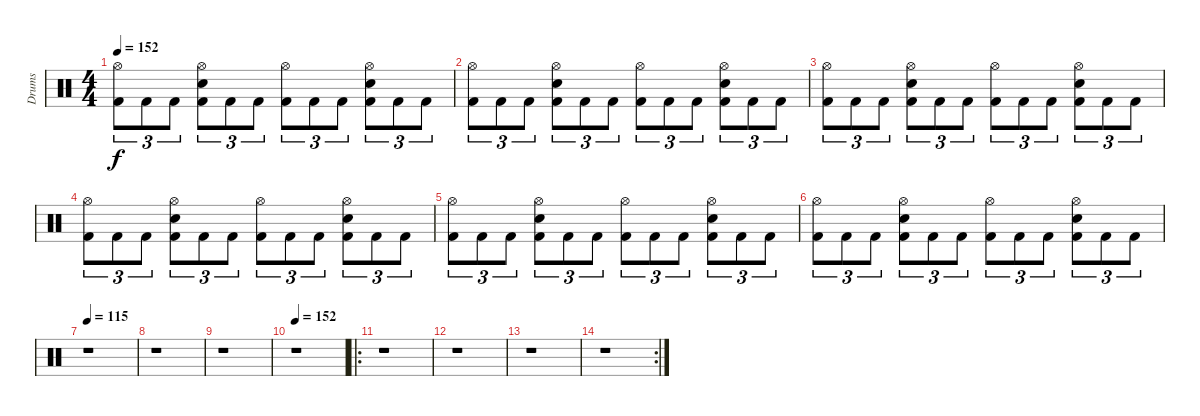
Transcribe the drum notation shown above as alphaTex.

\track ("Drums" "Drums") {instrument percussion}
\staff {score}
\articulation defaults
\ts (4 4)
\tempo 152
\clef neutral
\ks c
("Hi-Hat (open)" "Kick (hit) 2").8{tu (3 2) dy f} "Kick (hit) 2".8{tu (3 2)} "Kick (hit) 2".8{tu (3 2)} ("Hi-Hat (open)" "Snare (hit) 2" "Kick (hit) 2").8{tu (3 2)} "Kick (hit) 2".8{tu (3 2)} "Kick (hit) 2".8{tu (3 2)} ("Hi-Hat (open)" "Kick (hit) 2").8{tu (3 2)} "Kick (hit) 2".8{tu (3 2)} "Kick (hit) 2".8{tu (3 2)} ("Hi-Hat (open)" "Snare (hit) 2" "Kick (hit) 2").8{tu (3 2)} "Kick (hit) 2".8{tu (3 2)} "Kick (hit) 2".8{tu (3 2)} |
("Hi-Hat (open)" "Kick (hit) 2").8{tu (3 2)} "Kick (hit) 2".8{tu (3 2)} "Kick (hit) 2".8{tu (3 2)} ("Hi-Hat (open)" "Snare (hit) 2" "Kick (hit) 2").8{tu (3 2)} "Kick (hit) 2".8{tu (3 2)} "Kick (hit) 2".8{tu (3 2)} ("Hi-Hat (open)" "Kick (hit) 2").8{tu (3 2)} "Kick (hit) 2".8{tu (3 2)} "Kick (hit) 2".8{tu (3 2)} ("Hi-Hat (open)" "Snare (hit) 2" "Kick (hit) 2").8{tu (3 2)} "Kick (hit) 2".8{tu (3 2)} "Kick (hit) 2".8{tu (3 2)} |
("Hi-Hat (open)" "Kick (hit) 2").8{tu (3 2)} "Kick (hit) 2".8{tu (3 2)} "Kick (hit) 2".8{tu (3 2)} ("Hi-Hat (open)" "Snare (hit) 2" "Kick (hit) 2").8{tu (3 2)} "Kick (hit) 2".8{tu (3 2)} "Kick (hit) 2".8{tu (3 2)} ("Hi-Hat (open)" "Kick (hit) 2").8{tu (3 2)} "Kick (hit) 2".8{tu (3 2)} "Kick (hit) 2".8{tu (3 2)} ("Hi-Hat (open)" "Snare (hit) 2" "Kick (hit) 2").8{tu (3 2)} "Kick (hit) 2".8{tu (3 2)} "Kick (hit) 2".8{tu (3 2)} |
("Hi-Hat (open)" "Kick (hit) 2").8{tu (3 2)} "Kick (hit) 2".8{tu (3 2)} "Kick (hit) 2".8{tu (3 2)} ("Hi-Hat (open)" "Snare (hit) 2" "Kick (hit) 2").8{tu (3 2)} "Kick (hit) 2".8{tu (3 2)} "Kick (hit) 2".8{tu (3 2)} ("Hi-Hat (open)" "Kick (hit) 2").8{tu (3 2)} "Kick (hit) 2".8{tu (3 2)} "Kick (hit) 2".8{tu (3 2)} ("Hi-Hat (open)" "Snare (hit) 2" "Kick (hit) 2").8{tu (3 2)} "Kick (hit) 2".8{tu (3 2)} "Kick (hit) 2".8{tu (3 2)} |
("Hi-Hat (open)" "Kick (hit) 2").8{tu (3 2)} "Kick (hit) 2".8{tu (3 2)} "Kick (hit) 2".8{tu (3 2)} ("Hi-Hat (open)" "Snare (hit) 2" "Kick (hit) 2").8{tu (3 2)} "Kick (hit) 2".8{tu (3 2)} "Kick (hit) 2".8{tu (3 2)} ("Hi-Hat (open)" "Kick (hit) 2").8{tu (3 2)} "Kick (hit) 2".8{tu (3 2)} "Kick (hit) 2".8{tu (3 2)} ("Hi-Hat (open)" "Snare (hit) 2" "Kick (hit) 2").8{tu (3 2)} "Kick (hit) 2".8{tu (3 2)} "Kick (hit) 2".8{tu (3 2)} |
("Hi-Hat (open)" "Kick (hit) 2").8{tu (3 2)} "Kick (hit) 2".8{tu (3 2)} "Kick (hit) 2".8{tu (3 2)} ("Hi-Hat (open)" "Snare (hit) 2" "Kick (hit) 2").8{tu (3 2)} "Kick (hit) 2".8{tu (3 2)} "Kick (hit) 2".8{tu (3 2)} ("Hi-Hat (open)" "Kick (hit) 2").8{tu (3 2)} "Kick (hit) 2".8{tu (3 2)} "Kick (hit) 2".8{tu (3 2)} ("Hi-Hat (open)" "Snare (hit) 2" "Kick (hit) 2").8{tu (3 2)} "Kick (hit) 2".8{tu (3 2)} "Kick (hit) 2".8{tu (3 2)} |
\tempo 115
r.1 |
r.1 |
r.1 |
\tempo 152
r.1 |
\ro
r.1 |
r.1 |
r.1 |
\rc 2
r.1
